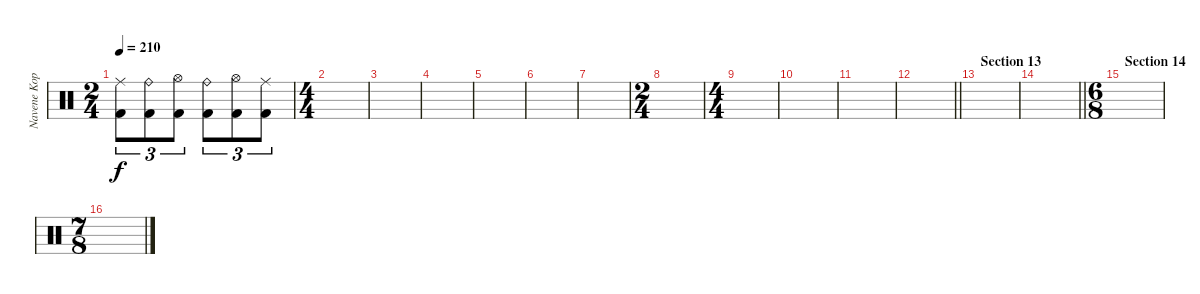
\track ("Navene Koperweis - drums" "Navene Kop") {instrument percussion}
\staff {score}
\articulation defaults
\ts (2 4)
\tempo 210
\clef neutral
\ks c
("Ride (middle)" "Kick (hit) 2").8{tu (3 2) dy f} ("Ride (bell)" "Kick (hit) 2").8{tu (3 2)} ("Hi-Hat (open)" "Kick (hit) 2").8{tu (3 2)} ("Ride (bell)" "Kick (hit) 2").8{tu (3 2)} ("Hi-Hat (open)" "Kick (hit) 2").8{tu (3 2)} ("Ride (middle)" "Kick (hit) 2").8{tu (3 2)} |
\ts (4 4)
|
|
|
|
|
|
\ts (2 4)
|
\ts (4 4)
|
|
|
\barLineRight lightlight
|
\section ("" "Section 13")
|
\barLineRight lightlight
|
\ts (6 8)
\section ("" "Section 14")
|
\ts (7 8)
